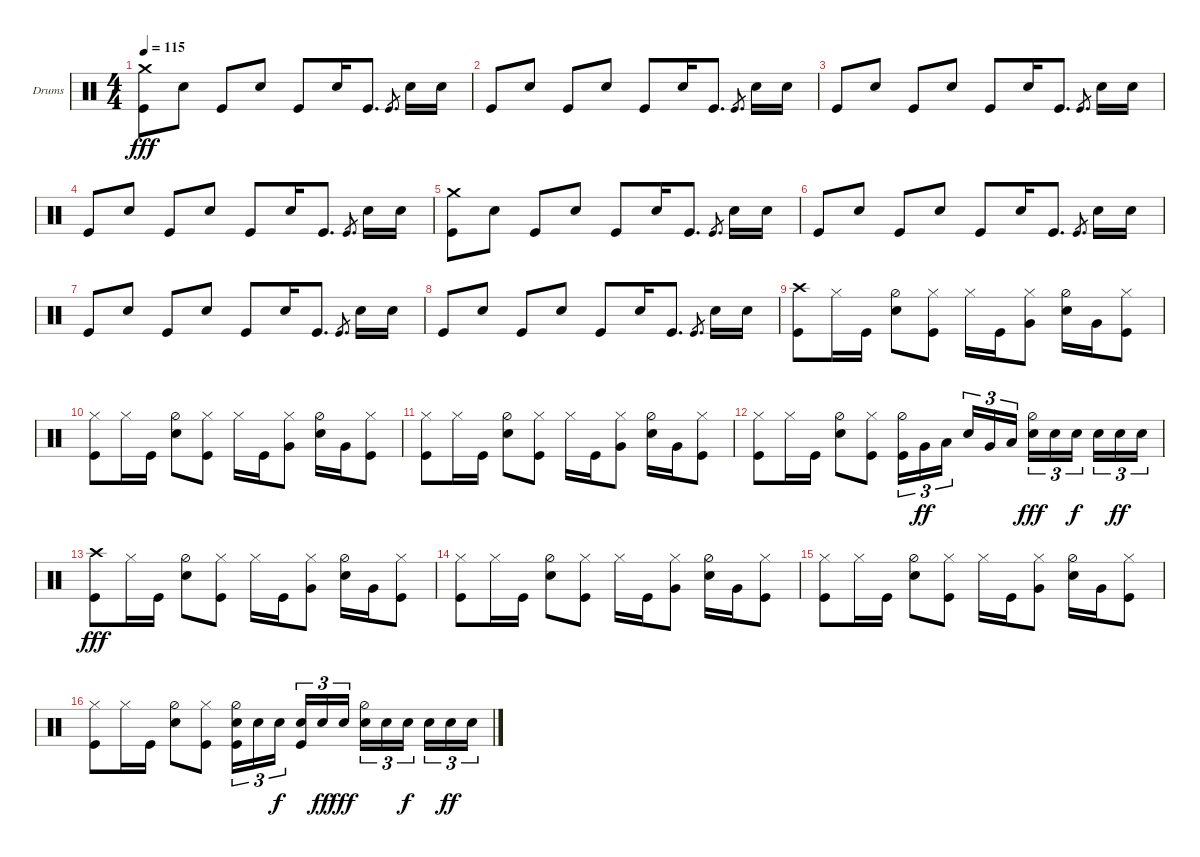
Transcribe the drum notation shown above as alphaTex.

\defaultSystemsLayout 4
\bracketExtendMode groupsimilarinstruments
\firstSystemTrackNameOrientation horizontal
\otherSystemsTrackNameOrientation horizontal
\track ("Drumkit" "Drums") {instrument percussion}
\staff {score}
\articulation defaults
\ts (4 4)
\tempo 115
\clef neutral
\ks c
("Kick (hit)" "Crash medium (hit)").8{dy fff} "Snare (hit) 2".8 "Kick (hit)".8 "Snare (hit) 2".8 "Kick (hit)".8 "Snare (hit) 2".16 "Kick (hit)".8{d} "Kick (hit)".8{d gr} "Snare (hit) 2".16 "Snare (hit) 2".16 |
"Kick (hit)".8 "Snare (hit) 2".8 "Kick (hit)".8 "Snare (hit) 2".8 "Kick (hit)".8 "Snare (hit) 2".16 "Kick (hit)".8{d} "Kick (hit)".8{d gr} "Snare (hit) 2".16 "Snare (hit) 2".16 |
"Kick (hit)".8 "Snare (hit) 2".8 "Kick (hit)".8 "Snare (hit) 2".8 "Kick (hit)".8 "Snare (hit) 2".16 "Kick (hit)".8{d} "Kick (hit)".8{d gr} "Snare (hit) 2".16 "Snare (hit) 2".16 |
"Kick (hit)".8 "Snare (hit) 2".8 "Kick (hit)".8 "Snare (hit) 2".8 "Kick (hit)".8 "Snare (hit) 2".16 "Kick (hit)".8{d} "Kick (hit)".8{d gr} "Snare (hit) 2".16 "Snare (hit) 2".16 |
("Kick (hit)" "Crash medium (hit)").8 "Snare (hit) 2".8 "Kick (hit)".8 "Snare (hit) 2".8 "Kick (hit)".8 "Snare (hit) 2".16 "Kick (hit)".8{d} "Kick (hit)".8{d gr} "Snare (hit) 2".16 "Snare (hit) 2".16 |
"Kick (hit)".8 "Snare (hit) 2".8 "Kick (hit)".8 "Snare (hit) 2".8 "Kick (hit)".8 "Snare (hit) 2".16 "Kick (hit)".8{d} "Kick (hit)".8{d gr} "Snare (hit) 2".16 "Snare (hit) 2".16 |
"Kick (hit)".8 "Snare (hit) 2".8 "Kick (hit)".8 "Snare (hit) 2".8 "Kick (hit)".8 "Snare (hit) 2".16 "Kick (hit)".8{d} "Kick (hit)".8{d gr} "Snare (hit) 2".16 "Snare (hit) 2".16 |
"Kick (hit)".8 "Snare (hit) 2".8 "Kick (hit)".8 "Snare (hit) 2".8 "Kick (hit)".8 "Snare (hit) 2".16 "Kick (hit)".8{d} "Kick (hit)".8{d gr} "Snare (hit) 2".16 "Snare (hit) 2".16 |
("Kick (hit)" "Crash high (hit)").8 "Hi-Hat (closed)".16 "Kick (hit)".16 ("Snare (hit) 2" "Hi-Hat (half)").8 ("Kick (hit)" "Hi-Hat (closed)").8 "Hi-Hat (closed)".16 "Kick (hit)".16 ("Hi-Hat (closed)" "Very Low Tom (hit)").8 ("Snare (hit) 2" "Hi-Hat (half)").16 "Very Low Tom (hit)".16 ("Kick (hit)" "Hi-Hat (closed)").8 |
("Kick (hit)" "Hi-Hat (closed)").8 "Hi-Hat (closed)".16 "Kick (hit)".16 ("Snare (hit) 2" "Hi-Hat (half)").8 ("Kick (hit)" "Hi-Hat (closed)").8 "Hi-Hat (closed)".16 "Kick (hit)".16 ("Hi-Hat (closed)" "Very Low Tom (hit)").8 ("Snare (hit) 2" "Hi-Hat (half)").16 "Very Low Tom (hit)".16 ("Kick (hit)" "Hi-Hat (closed)").8 |
("Kick (hit)" "Hi-Hat (closed)").8 "Hi-Hat (closed)".16 "Kick (hit)".16 ("Snare (hit) 2" "Hi-Hat (half)").8 ("Kick (hit)" "Hi-Hat (closed)").8 "Hi-Hat (closed)".16 "Kick (hit)".16 ("Hi-Hat (closed)" "Very Low Tom (hit)").8 ("Snare (hit) 2" "Hi-Hat (half)").16 "Very Low Tom (hit)".16 ("Kick (hit)" "Hi-Hat (closed)").8 |
("Kick (hit)" "Hi-Hat (closed)").8 "Hi-Hat (closed)".16 "Kick (hit)".16 ("Snare (hit) 2" "Hi-Hat (half)").8 ("Kick (hit)" "Hi-Hat (closed)").8 ("Kick (hit)" "Hi-Hat (half)").16{tu (3 2)} "Very Low Tom (hit)".16{tu (3 2) dy ff} "Low Tom (hit)".16{tu (3 2)} "Snare (hit) 2".16{tu (3 2)} "Very Low Tom (hit)".16{tu (3 2)} "Low Tom (hit)".16{tu (3 2)} ("Snare (hit) 2" "Hi-Hat (half)").16{tu (3 2) dy fff} "Snare (hit) 2".16{tu (3 2)} "Snare (hit) 2".16{tu (3 2) dy f} "Snare (hit) 2".16{tu (3 2)} "Snare (hit) 2".16{tu (3 2) dy ff} "Snare (hit) 2".16{tu (3 2)} |
("Kick (hit)" "Crash high (hit)").8{dy fff} "Hi-Hat (closed)".16 "Kick (hit)".16 ("Snare (hit) 2" "Hi-Hat (half)").8 ("Kick (hit)" "Hi-Hat (closed)").8 "Hi-Hat (closed)".16 "Kick (hit)".16 ("Hi-Hat (closed)" "Very Low Tom (hit)").8 ("Snare (hit) 2" "Hi-Hat (half)").16 "Very Low Tom (hit)".16 ("Kick (hit)" "Hi-Hat (closed)").8 |
("Kick (hit)" "Hi-Hat (closed)").8 "Hi-Hat (closed)".16 "Kick (hit)".16 ("Snare (hit) 2" "Hi-Hat (half)").8 ("Kick (hit)" "Hi-Hat (closed)").8 "Hi-Hat (closed)".16 "Kick (hit)".16 ("Hi-Hat (closed)" "Very Low Tom (hit)").8 ("Snare (hit) 2" "Hi-Hat (half)").16 "Very Low Tom (hit)".16 ("Kick (hit)" "Hi-Hat (closed)").8 |
("Kick (hit)" "Hi-Hat (closed)").8 "Hi-Hat (closed)".16 "Kick (hit)".16 ("Snare (hit) 2" "Hi-Hat (half)").8 ("Kick (hit)" "Hi-Hat (closed)").8 "Hi-Hat (closed)".16 "Kick (hit)".16 ("Hi-Hat (closed)" "Very Low Tom (hit)").8 ("Snare (hit) 2" "Hi-Hat (half)").16 "Very Low Tom (hit)".16 ("Kick (hit)" "Hi-Hat (closed)").8 |
("Kick (hit)" "Hi-Hat (closed)").8 "Hi-Hat (closed)".16 "Kick (hit)".16 ("Snare (hit) 2" "Hi-Hat (half)").8 ("Kick (hit)" "Hi-Hat (closed)").8 ("Snare (hit) 2" "Kick (hit)" "Hi-Hat (half)").16{tu (3 2)} "Snare (hit) 2".16{tu (3 2)} "Snare (hit) 2".16{tu (3 2) dy f} ("Snare (hit) 2" "Kick (hit)").16{tu (3 2)} "Snare (hit) 2".16{tu (3 2) dy ff} "Snare (hit) 2".16{tu (3 2) dy fff} ("Snare (hit) 2" "Hi-Hat (half)").16{tu (3 2)} "Snare (hit) 2".16{tu (3 2)} "Snare (hit) 2".16{tu (3 2) dy f} "Snare (hit) 2".16{tu (3 2)} "Snare (hit) 2".16{tu (3 2) dy ff} "Snare (hit) 2".16{tu (3 2)}
